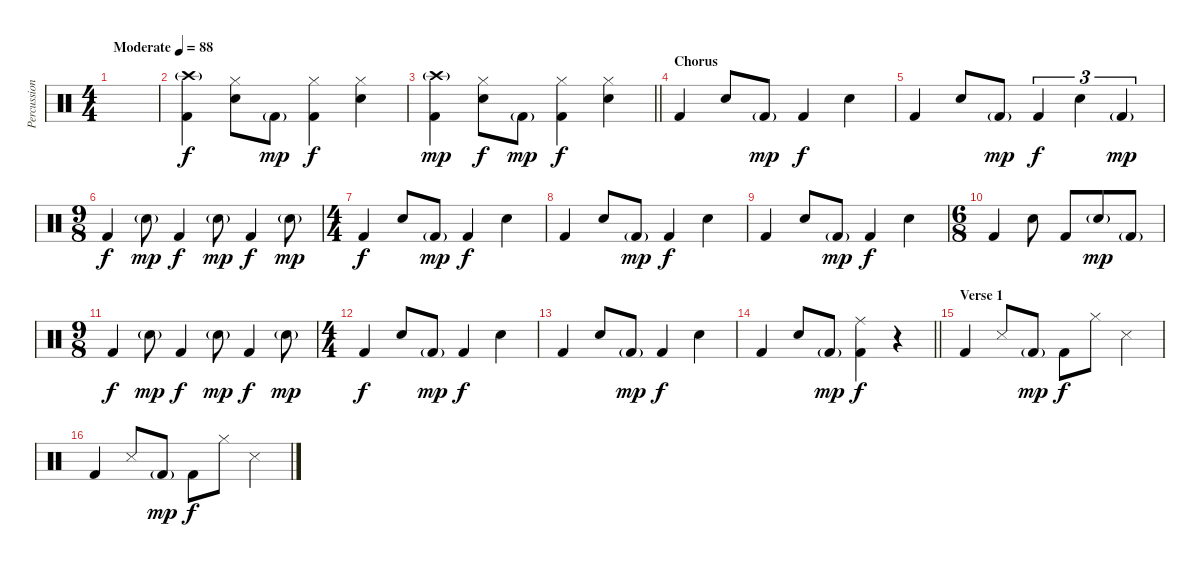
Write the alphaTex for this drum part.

\track ("Percussion" "Percussion") {instrument percussion}
\staff {score}
\articulation defaults
\ts (4 4)
\tempo (88 "Moderate")
\clef neutral
\ks c
|
("Crash high (hit)"{g} "Kick (hit) 2").4 ("Hi-Hat (closed)" "Snare (hit) 2").8{dy f} "Kick (hit) 2"{g}.8{dy mp} ("Hi-Hat (closed)" "Kick (hit) 2").4{dy f} ("Hi-Hat (closed)" "Snare (hit) 2").4 |
\barLineRight lightlight
("Crash high (hit)"{g} "Kick (hit) 2").4{dy mp} ("Hi-Hat (closed)" "Snare (hit) 2").8{dy f} "Kick (hit) 2"{g}.8{dy mp} ("Hi-Hat (closed)" "Kick (hit) 2").4{dy f} ("Hi-Hat (closed)" "Snare (hit) 2").4 |
\section ("" "Chorus")
"Kick (hit) 2".4 "Snare (hit) 2".8 "Kick (hit) 2"{g}.8{dy mp} "Kick (hit) 2".4{dy f} "Snare (hit) 2".4 |
"Kick (hit) 2".4 "Snare (hit) 2".8 "Kick (hit) 2"{g}.8{dy mp} "Kick (hit) 2".4{tu (3 2) dy f} "Snare (hit) 2".4{tu (3 2)} "Kick (hit) 2"{g}.4{tu (3 2) dy mp} |
\ts (9 8)
"Kick (hit) 2".4{dy f} "Snare (hit) 2"{g}.8{dy mp} "Kick (hit) 2".4{dy f} "Snare (hit) 2"{g}.8{dy mp} "Kick (hit) 2".4{dy f} "Snare (hit) 2"{g}.8{dy mp} |
\ts (4 4)
"Kick (hit) 2".4{dy f} "Snare (hit) 2".8 "Kick (hit) 2"{g}.8{dy mp} "Kick (hit) 2".4{dy f} "Snare (hit) 2".4 |
"Kick (hit) 2".4 "Snare (hit) 2".8 "Kick (hit) 2"{g}.8{dy mp} "Kick (hit) 2".4{dy f} "Snare (hit) 2".4 |
"Kick (hit) 2".4 "Snare (hit) 2".8 "Kick (hit) 2"{g}.8{dy mp} "Kick (hit) 2".4{dy f} "Snare (hit) 2".4 |
\ts (6 8)
"Kick (hit) 2".4 "Snare (hit) 2".8 "Kick (hit) 2".8 "Snare (hit) 2"{g}.8{dy mp} "Kick (hit) 2"{g}.8 |
\ts (9 8)
"Kick (hit) 2".4{dy f} "Snare (hit) 2"{g}.8{dy mp} "Kick (hit) 2".4{dy f} "Snare (hit) 2"{g}.8{dy mp} "Kick (hit) 2".4{dy f} "Snare (hit) 2"{g}.8{dy mp} |
\ts (4 4)
"Kick (hit) 2".4{dy f} "Snare (hit) 2".8 "Kick (hit) 2"{g}.8{dy mp} "Kick (hit) 2".4{dy f} "Snare (hit) 2".4 |
"Kick (hit) 2".4 "Snare (hit) 2".8 "Kick (hit) 2"{g}.8{dy mp} "Kick (hit) 2".4{dy f} "Snare (hit) 2".4 |
\barLineRight lightlight "Kick (hit) 2".4 "Snare (hit) 2".8 "Kick (hit) 2"{g}.8{dy mp}
("Ride (middle)" "Kick (hit) 2").4{dy f} r.4 |
\section ("" "Verse 1")
"Kick (hit) 2".4 "Snare (side stick) 3".8 "Kick (hit) 2"{g}.8{dy mp} "Kick (hit) 2".8{dy f} "Hi-Hat (closed)".8 "Snare (side stick) 3".4 |
"Kick (hit) 2".4 "Snare (side stick) 3".8 "Kick (hit) 2"{g}.8{dy mp} "Kick (hit) 2".8{dy f} "Hi-Hat (closed)".8 "Snare (side stick) 3".4
